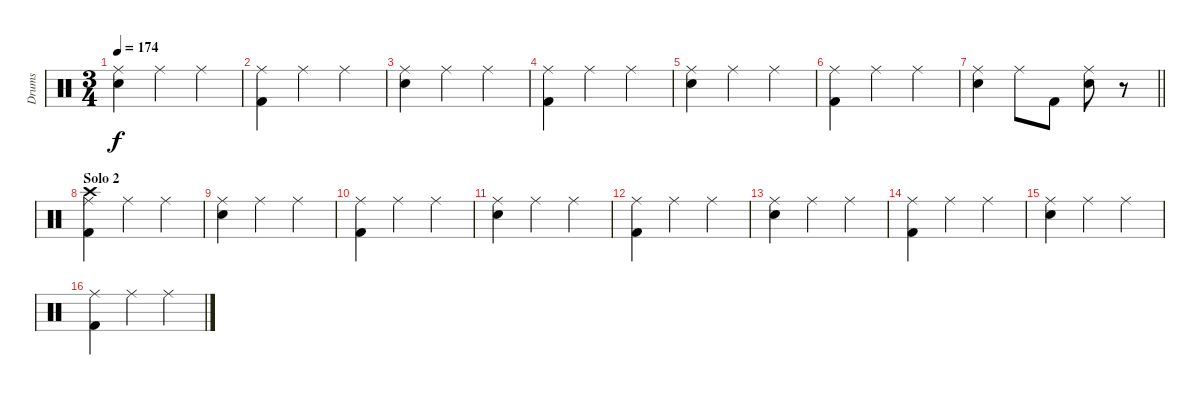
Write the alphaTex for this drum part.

\track ("Drums" "Drums") {instrument percussion}
\staff {score}
\articulation defaults
\ts (3 4)
\tempo 174
\clef neutral
\ks c
("Ride (middle)" "Snare (hit) 2").4{dy f} "Ride (middle)".4 "Ride (middle)".4 |
("Ride (middle)" "Kick (hit) 2").4 "Ride (middle)".4 "Ride (middle)".4 |
("Ride (middle)" "Snare (hit) 2").4 "Ride (middle)".4 "Ride (middle)".4 |
("Ride (middle)" "Kick (hit) 2").4 "Ride (middle)".4 "Ride (middle)".4 |
("Ride (middle)" "Snare (hit) 2").4 "Ride (middle)".4 "Ride (middle)".4 |
("Ride (middle)" "Kick (hit) 2").4 "Ride (middle)".4 "Ride (middle)".4 |
\barLineRight lightlight
("Ride (middle)" "Snare (hit) 2").4 "Ride (middle)".8 "Kick (hit) 2".8 ("Ride (middle)" "Snare (hit) 2").8 r.8 |
\section ("" "Solo 2")
("Crash high (hit)" "Ride (middle)" "Kick (hit) 2").4 "Ride (middle)".4 "Ride (middle)".4 |
("Ride (middle)" "Snare (hit) 2").4 "Ride (middle)".4 "Ride (middle)".4 |
("Ride (middle)" "Kick (hit) 2").4 "Ride (middle)".4 "Ride (middle)".4 |
("Ride (middle)" "Snare (hit) 2").4 "Ride (middle)".4 "Ride (middle)".4 |
("Ride (middle)" "Kick (hit) 2").4 "Ride (middle)".4 "Ride (middle)".4 |
("Ride (middle)" "Snare (hit) 2").4 "Ride (middle)".4 "Ride (middle)".4 |
("Ride (middle)" "Kick (hit) 2").4 "Ride (middle)".4 "Ride (middle)".4 |
("Ride (middle)" "Snare (hit) 2").4 "Ride (middle)".4 "Ride (middle)".4 |
("Ride (middle)" "Kick (hit) 2").4 "Ride (middle)".4 "Ride (middle)".4
